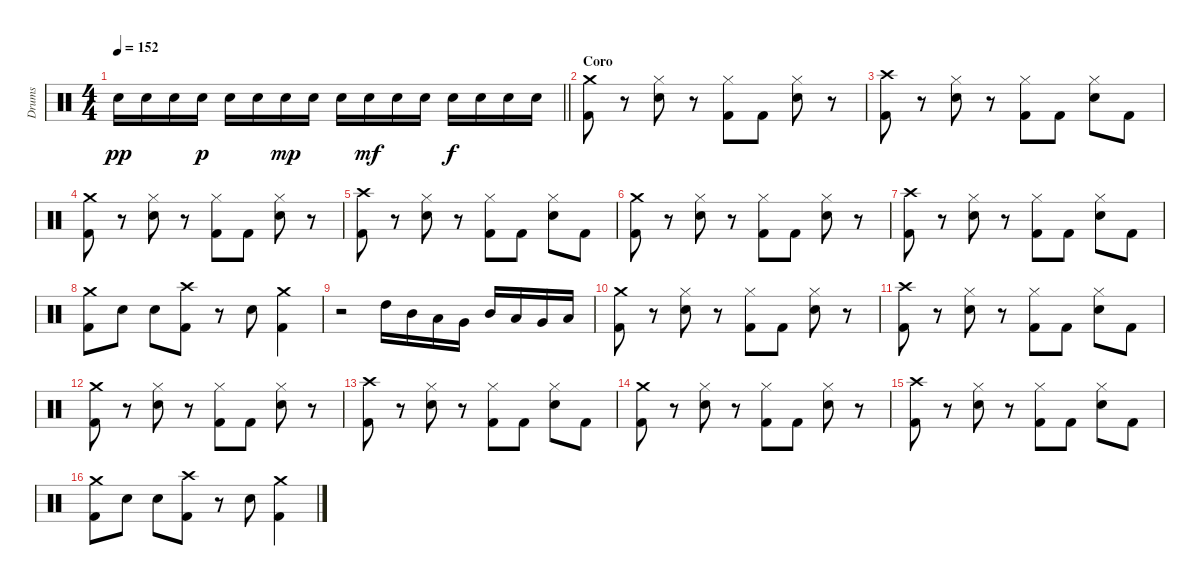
\track ("Drums" "Drums") {instrument percussion}
\staff {score}
\articulation defaults
\ts (4 4)
\tempo 152
\clef neutral
\barLineRight lightlight
\ks c "Electric Snare (hit)".16{dy pp} "Electric Snare (hit)".16 "Electric Snare (hit)".16 "Electric Snare (hit)".16{dy p} "Electric Snare (hit)".16 "Electric Snare (hit)".16 "Electric Snare (hit)".16{dy mp} "Electric Snare (hit)".16 "Electric Snare (hit)".16 "Electric Snare (hit)".16{dy mf} "Electric Snare (hit)".16 "Electric Snare (hit)".16 "Electric Snare (hit)".16{dy f} "Electric Snare (hit)".16 "Electric Snare (hit)".16 "Electric Snare (hit)".16
|
\section ("" "Coro")
("Crash medium (hit)" "Kick (hit) 2").8 r.8 ("Hi-Hat (closed)" "Electric Snare (hit)").8 r.8 ("Hi-Hat (closed)" "Kick (hit) 2").8 "Kick (hit) 2".8 ("Hi-Hat (closed)" "Electric Snare (hit)").8 r.8 |
("Crash high (hit)" "Kick (hit) 2").8 r.8 ("Hi-Hat (closed)" "Electric Snare (hit)").8 r.8 ("Hi-Hat (closed)" "Kick (hit) 2").8 "Kick (hit) 2".8 ("Hi-Hat (closed)" "Electric Snare (hit)").8 "Kick (hit) 2".8 |
("Crash medium (hit)" "Kick (hit) 2").8 r.8 ("Hi-Hat (closed)" "Electric Snare (hit)").8 r.8 ("Hi-Hat (closed)" "Kick (hit) 2").8 "Kick (hit) 2".8 ("Hi-Hat (closed)" "Electric Snare (hit)").8 r.8 |
("Crash high (hit)" "Kick (hit) 2").8 r.8 ("Hi-Hat (closed)" "Electric Snare (hit)").8 r.8 ("Hi-Hat (closed)" "Kick (hit) 2").8 "Kick (hit) 2".8 ("Hi-Hat (closed)" "Electric Snare (hit)").8 "Kick (hit) 2".8 |
("Crash medium (hit)" "Kick (hit) 2").8 r.8 ("Hi-Hat (closed)" "Electric Snare (hit)").8 r.8 ("Hi-Hat (closed)" "Kick (hit) 2").8 "Kick (hit) 2".8 ("Hi-Hat (closed)" "Electric Snare (hit)").8 r.8 |
("Crash high (hit)" "Kick (hit) 2").8 r.8 ("Hi-Hat (closed)" "Electric Snare (hit)").8 r.8 ("Hi-Hat (closed)" "Kick (hit) 2").8 "Kick (hit) 2".8 ("Hi-Hat (closed)" "Electric Snare (hit)").8 "Kick (hit) 2".8 |
("Crash medium (hit)" "Kick (hit) 2").8 "Electric Snare (hit)".8 "Electric Snare (hit)".8 ("Crash high (hit)" "Kick (hit) 2").8 r.8 "Electric Snare (hit)".8 ("Crash medium (hit)" "Kick (hit) 2").4 |
r.2 "High Tom (hit)".16 "Mid Tom (hit)".16 "Low Tom (hit)".16 "Very Low Tom (hit)".16 "Mid Tom (hit)".16 "Low Tom (hit)".16 "Very Low Tom (hit)".16 "Low Floor Tom (hit)".16 |
("Crash medium (hit)" "Kick (hit) 2").8 r.8 ("Hi-Hat (closed)" "Electric Snare (hit)").8 r.8 ("Hi-Hat (closed)" "Kick (hit) 2").8 "Kick (hit) 2".8 ("Hi-Hat (closed)" "Electric Snare (hit)").8 r.8 |
("Crash high (hit)" "Kick (hit) 2").8 r.8 ("Hi-Hat (closed)" "Electric Snare (hit)").8 r.8 ("Hi-Hat (closed)" "Kick (hit) 2").8 "Kick (hit) 2".8 ("Hi-Hat (closed)" "Electric Snare (hit)").8 "Kick (hit) 2".8 |
("Crash medium (hit)" "Kick (hit) 2").8 r.8 ("Hi-Hat (closed)" "Electric Snare (hit)").8 r.8 ("Hi-Hat (closed)" "Kick (hit) 2").8 "Kick (hit) 2".8 ("Hi-Hat (closed)" "Electric Snare (hit)").8 r.8 |
("Crash high (hit)" "Kick (hit) 2").8 r.8 ("Hi-Hat (closed)" "Electric Snare (hit)").8 r.8 ("Hi-Hat (closed)" "Kick (hit) 2").8 "Kick (hit) 2".8 ("Hi-Hat (closed)" "Electric Snare (hit)").8 "Kick (hit) 2".8 |
("Crash medium (hit)" "Kick (hit) 2").8 r.8 ("Hi-Hat (closed)" "Electric Snare (hit)").8 r.8 ("Hi-Hat (closed)" "Kick (hit) 2").8 "Kick (hit) 2".8 ("Hi-Hat (closed)" "Electric Snare (hit)").8 r.8 |
("Crash high (hit)" "Kick (hit) 2").8 r.8 ("Hi-Hat (closed)" "Electric Snare (hit)").8 r.8 ("Hi-Hat (closed)" "Kick (hit) 2").8 "Kick (hit) 2".8 ("Hi-Hat (closed)" "Electric Snare (hit)").8 "Kick (hit) 2".8 |
("Crash medium (hit)" "Kick (hit) 2").8 "Electric Snare (hit)".8 "Electric Snare (hit)".8 ("Crash high (hit)" "Kick (hit) 2").8 r.8 "Electric Snare (hit)".8 ("Crash medium (hit)" "Kick (hit) 2").4
